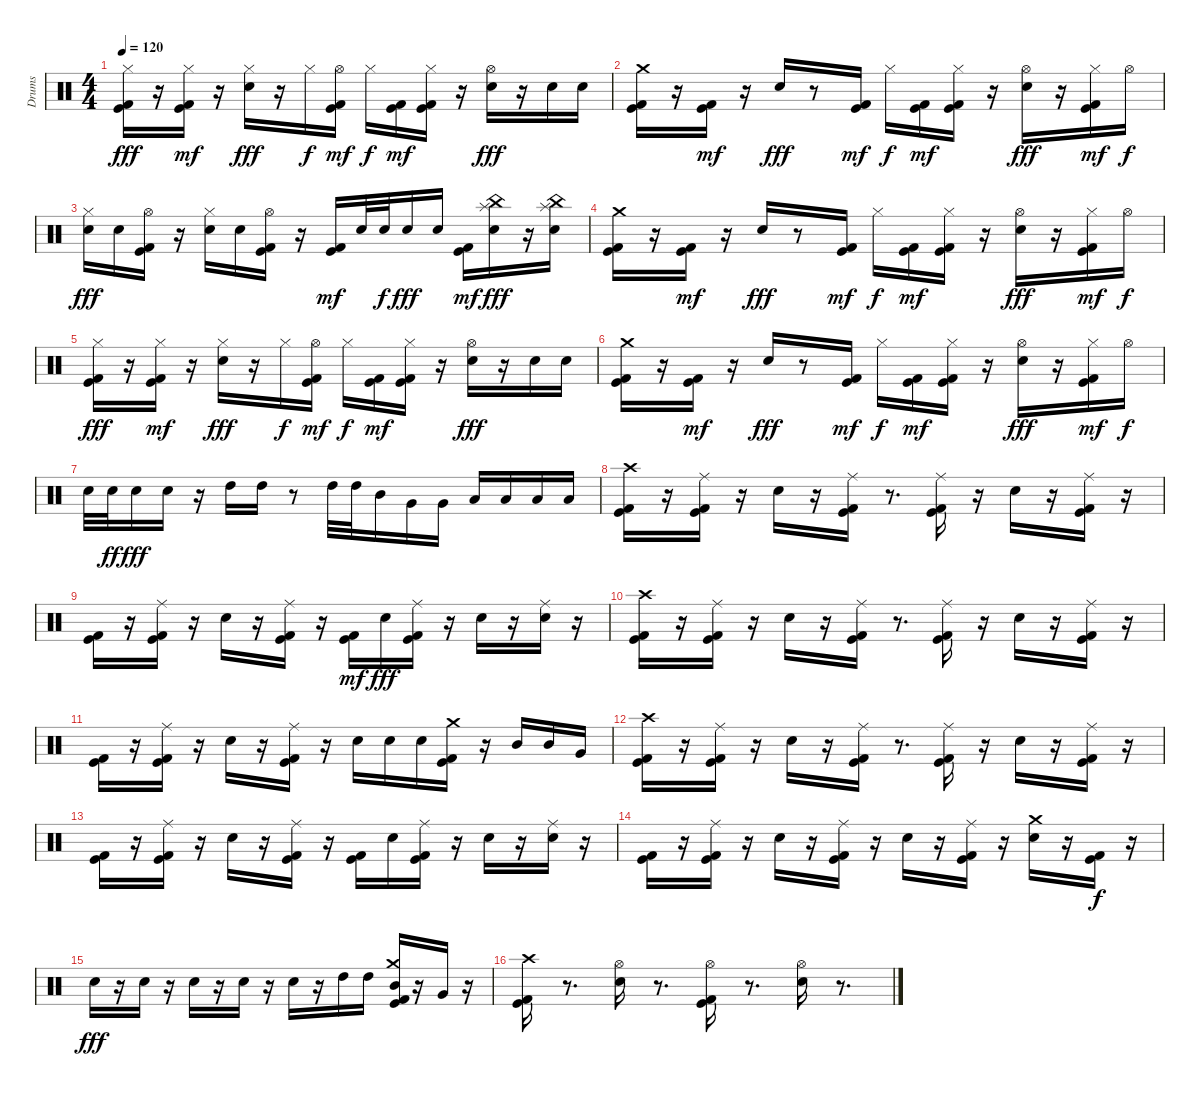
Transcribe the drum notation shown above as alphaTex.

\track ("Drums" "Drums") {instrument percussion}
\staff {score}
\articulation defaults
\ts (4 4)
\tempo 120
\clef neutral
\ks c
("Kick (hit)" "Kick (hit) 2" "Hi-Hat (closed)").16{dy fff} r.16 ("Kick (hit)" "Kick (hit) 2" "Hi-Hat (closed)").16{dy mf} r.16 ("Electric Snare (hit)" "Hi-Hat (closed)").16{dy fff} r.16 "Hi-Hat (closed)".16{dy f} ("Kick (hit)" "Kick (hit) 2" "Hi-Hat (open)").16{dy mf} "Hi-Hat (closed)".16{dy f} ("Kick (hit)" "Kick (hit) 2").16{dy mf} ("Kick (hit)" "Kick (hit) 2" "Hi-Hat (closed)").16 r.16 ("Electric Snare (hit)" "Hi-Hat (open)").16{dy fff} r.16 "Electric Snare (hit)".16 "Electric Snare (hit)".16 |
("Kick (hit)" "Kick (hit) 2" "Crash medium (hit)").16 r.16 ("Kick (hit)" "Kick (hit) 2").16{dy mf} r.16 "Electric Snare (hit)".16{dy fff} r.8 ("Kick (hit)" "Kick (hit) 2").16{dy mf} "Hi-Hat (closed)".16{dy f} ("Kick (hit)" "Kick (hit) 2").16{dy mf} ("Kick (hit)" "Kick (hit) 2" "Hi-Hat (closed)").16 r.16 ("Electric Snare (hit)" "Hi-Hat (open)").16{dy fff} r.16 ("Kick (hit)" "Kick (hit) 2" "Hi-Hat (closed)").16{dy mf} "Hi-Hat (open)".16{dy f} |
("Electric Snare (hit)" "Hi-Hat (closed)").16{dy fff} "Electric Snare (hit)".16 ("Kick (hit)" "Kick (hit) 2" "Hi-Hat (open)").16 r.16 ("Electric Snare (hit)" "Hi-Hat (closed)").16 "Electric Snare (hit)".16 ("Kick (hit)" "Kick (hit) 2" "Hi-Hat (open)").16 r.16 ("Kick (hit)" "Kick (hit) 2").16{dy mf} "Electric Snare (hit)".32 "Electric Snare (hit)".32{dy f} "Electric Snare (hit)".16{dy fff} "Electric Snare (hit)".16 ("Kick (hit)" "Kick (hit) 2").16{dy mf} ("Electric Snare (hit)" "China (hit)" "Splash (hit)").16{dy fff} r.16 ("Electric Snare (hit)" "China (hit)" "Splash (hit)").16 |
("Kick (hit)" "Kick (hit) 2" "Crash medium (hit)").16 r.16 ("Kick (hit)" "Kick (hit) 2").16{dy mf} r.16 "Electric Snare (hit)".16{dy fff} r.8 ("Kick (hit)" "Kick (hit) 2").16{dy mf} "Hi-Hat (closed)".16{dy f} ("Kick (hit)" "Kick (hit) 2").16{dy mf} ("Kick (hit)" "Kick (hit) 2" "Hi-Hat (closed)").16 r.16 ("Electric Snare (hit)" "Hi-Hat (open)").16{dy fff} r.16 ("Kick (hit)" "Kick (hit) 2" "Hi-Hat (closed)").16{dy mf} "Hi-Hat (open)".16{dy f} |
("Kick (hit)" "Kick (hit) 2" "Hi-Hat (closed)").16{dy fff} r.16 ("Kick (hit)" "Kick (hit) 2" "Hi-Hat (closed)").16{dy mf} r.16 ("Electric Snare (hit)" "Hi-Hat (closed)").16{dy fff} r.16 "Hi-Hat (closed)".16{dy f} ("Kick (hit)" "Kick (hit) 2" "Hi-Hat (open)").16{dy mf} "Hi-Hat (closed)".16{dy f} ("Kick (hit)" "Kick (hit) 2").16{dy mf} ("Kick (hit)" "Kick (hit) 2" "Hi-Hat (closed)").16 r.16 ("Electric Snare (hit)" "Hi-Hat (open)").16{dy fff} r.16 "Electric Snare (hit)".16 "Electric Snare (hit)".16 |
("Kick (hit)" "Kick (hit) 2" "Crash medium (hit)").16 r.16 ("Kick (hit)" "Kick (hit) 2").16{dy mf} r.16 "Electric Snare (hit)".16{dy fff} r.8 ("Kick (hit)" "Kick (hit) 2").16{dy mf} "Hi-Hat (closed)".16{dy f} ("Kick (hit)" "Kick (hit) 2").16{dy mf} ("Kick (hit)" "Kick (hit) 2" "Hi-Hat (closed)").16 r.16 ("Electric Snare (hit)" "Hi-Hat (open)").16{dy fff} r.16 ("Kick (hit)" "Kick (hit) 2" "Hi-Hat (closed)").16{dy mf} "Hi-Hat (open)".16{dy f} |
"Electric Snare (hit)".32 "Electric Snare (hit)".32{dy ff} "Electric Snare (hit)".16{dy fff} "Electric Snare (hit)".16 r.16 "High Tom (hit)".16 "High Tom (hit)".16 r.8 "High Tom (hit)".32 "High Tom (hit)".32 "Mid Tom (hit)".16 "Very Low Tom (hit)".16 "Very Low Tom (hit)".16 "Low Floor Tom (hit)".16 "Low Floor Tom (hit)".16 "Low Floor Tom (hit)".16 "Low Floor Tom (hit)".16 |
("Kick (hit)" "Kick (hit) 2" "Crash high (hit)").16 r.16 ("Kick (hit)" "Kick (hit) 2" "Ride (middle)").16 r.16 "Electric Snare (hit)".16 r.16 ("Kick (hit)" "Kick (hit) 2" "Ride (middle)").16 r.8{d} ("Kick (hit)" "Kick (hit) 2" "Ride (middle)").16 r.16 "Electric Snare (hit)".16 r.16 ("Kick (hit)" "Kick (hit) 2" "Ride (middle)").16 r.16 |
("Kick (hit)" "Kick (hit) 2").16 r.16 ("Kick (hit)" "Kick (hit) 2" "Ride (middle)").16 r.16 "Electric Snare (hit)".16 r.16 ("Kick (hit)" "Kick (hit) 2" "Ride (middle)").16 r.16 ("Kick (hit)" "Kick (hit) 2").16{dy mf} "Electric Snare (hit)".16{dy fff} ("Kick (hit)" "Kick (hit) 2" "Ride (middle)").16 r.16 "Electric Snare (hit)".16 r.16 ("Electric Snare (hit)" "Ride (middle)").16 r.16 |
("Kick (hit)" "Kick (hit) 2" "Crash high (hit)").16 r.16 ("Kick (hit)" "Kick (hit) 2" "Ride (middle)").16 r.16 "Electric Snare (hit)".16 r.16 ("Kick (hit)" "Kick (hit) 2" "Ride (middle)").16 r.8{d} ("Kick (hit)" "Kick (hit) 2" "Ride (middle)").16 r.16 "Electric Snare (hit)".16 r.16 ("Kick (hit)" "Kick (hit) 2" "Ride (middle)").16 r.16 |
("Kick (hit)" "Kick (hit) 2").16 r.16 ("Kick (hit)" "Kick (hit) 2" "Ride (middle)").16 r.16 "Electric Snare (hit)".16 r.16 ("Kick (hit)" "Kick (hit) 2" "Ride (middle)").16 r.16 "Electric Snare (hit)".16 "Electric Snare (hit)".16 "Electric Snare (hit)".16 ("Kick (hit)" "Kick (hit) 2" "Crash medium (hit)").16 r.16 "Mid Tom (hit)".16 "Mid Tom (hit)".16 "Very Low Tom (hit)".16 |
("Kick (hit)" "Kick (hit) 2" "Crash high (hit)").16 r.16 ("Kick (hit)" "Kick (hit) 2" "Ride (middle)").16 r.16 "Electric Snare (hit)".16 r.16 ("Kick (hit)" "Kick (hit) 2" "Ride (middle)").16 r.8{d} ("Kick (hit)" "Kick (hit) 2" "Ride (middle)").16 r.16 "Electric Snare (hit)".16 r.16 ("Kick (hit)" "Kick (hit) 2" "Ride (middle)").16 r.16 |
("Kick (hit)" "Kick (hit) 2").16 r.16 ("Kick (hit)" "Kick (hit) 2" "Ride (middle)").16 r.16 "Electric Snare (hit)".16 r.16 ("Kick (hit)" "Kick (hit) 2" "Ride (middle)").16 r.16 ("Kick (hit)" "Kick (hit) 2").16 "Electric Snare (hit)".16 ("Kick (hit)" "Kick (hit) 2" "Ride (middle)").16 r.16 "Electric Snare (hit)".16 r.16 ("Electric Snare (hit)" "Ride (middle)").16 r.16 |
("Kick (hit)" "Kick (hit) 2").16 r.16 ("Kick (hit)" "Kick (hit) 2" "Ride (middle)").16 r.16 "Electric Snare (hit)".16 r.16 ("Kick (hit)" "Kick (hit) 2" "Ride (middle)").16 r.16 "Electric Snare (hit)".16 r.16 ("Kick (hit)" "Kick (hit) 2" "Ride (middle)").16 r.16 ("Electric Snare (hit)" "Crash medium (hit)").16 r.16 ("Kick (hit)" "Kick (hit) 2").16{dy f} r.16 |
"Electric Snare (hit)".16{dy fff} r.16 "Electric Snare (hit)".16 r.16 "Electric Snare (hit)".16 r.16 "Electric Snare (hit)".16 r.16 "Electric Snare (hit)".16 r.16 "High Tom (hit)".16 "High Tom (hit)".16 ("Kick (hit)" "Kick (hit) 2" "Mid Tom (hit)" "Crash medium (hit)").16 r.16 "Very Low Tom (hit)".16 r.16 |
("Kick (hit)" "Kick (hit) 2" "Crash high (hit)").16 r.8{d} ("Electric Snare (hit)" "Hi-Hat (open)").16 r.8{d} ("Kick (hit)" "Kick (hit) 2" "Hi-Hat (open)").16 r.8{d} ("Electric Snare (hit)" "Hi-Hat (open)").16 r.8{d}
